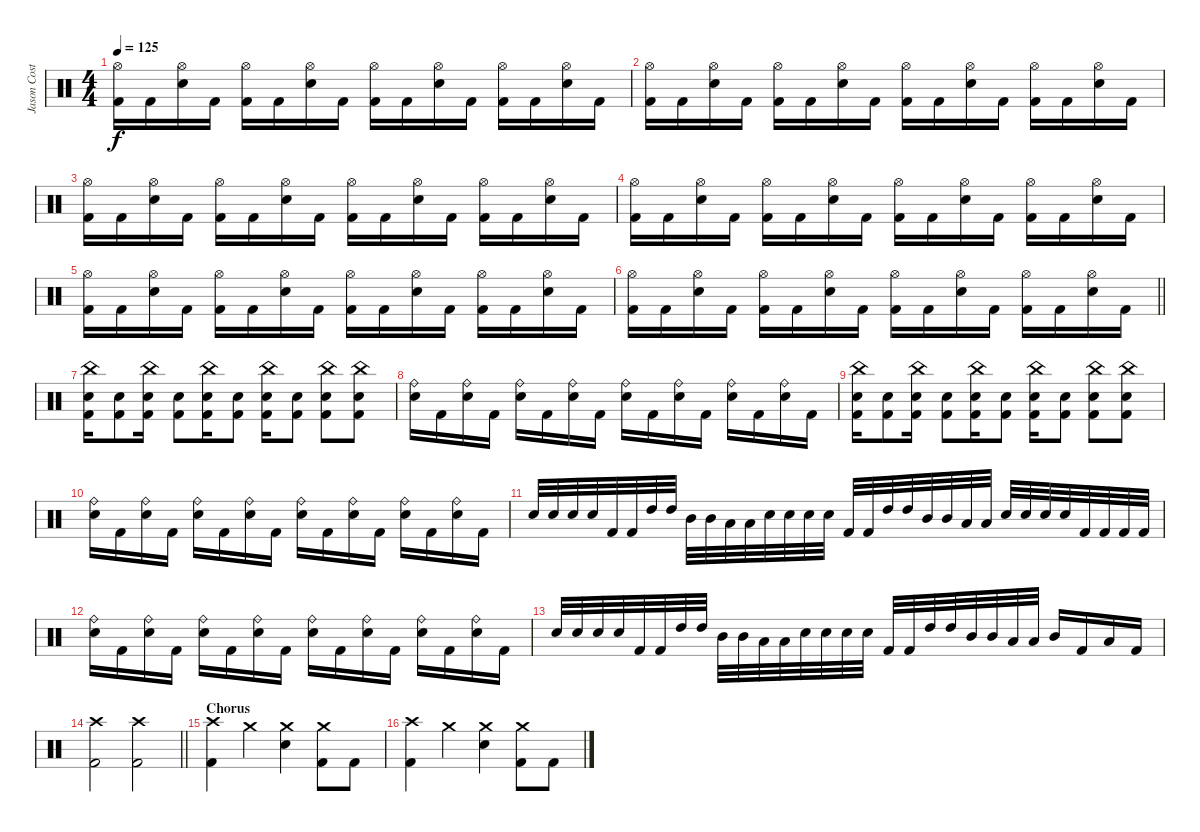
\track ("Jason Costa" "Jason Cost") {instrument percussion}
\staff {score}
\articulation defaults
\ts (4 4)
\tempo 125
\clef neutral
\ks c
("Hi-Hat (open)" "Kick (hit) 2").16{dy f} "Kick (hit) 2".16 ("Hi-Hat (open)" "Electric Snare (hit)").16 "Kick (hit) 2".16 ("Hi-Hat (open)" "Kick (hit) 2").16 "Kick (hit) 2".16 ("Hi-Hat (open)" "Electric Snare (hit)").16 "Kick (hit) 2".16 ("Hi-Hat (open)" "Kick (hit) 2").16 "Kick (hit) 2".16 ("Hi-Hat (open)" "Electric Snare (hit)").16 "Kick (hit) 2".16 ("Hi-Hat (open)" "Kick (hit) 2").16 "Kick (hit) 2".16 ("Hi-Hat (open)" "Electric Snare (hit)").16 "Kick (hit) 2".16 |
("Hi-Hat (open)" "Kick (hit) 2").16 "Kick (hit) 2".16 ("Hi-Hat (open)" "Electric Snare (hit)").16 "Kick (hit) 2".16 ("Hi-Hat (open)" "Kick (hit) 2").16 "Kick (hit) 2".16 ("Hi-Hat (open)" "Electric Snare (hit)").16 "Kick (hit) 2".16 ("Hi-Hat (open)" "Kick (hit) 2").16 "Kick (hit) 2".16 ("Hi-Hat (open)" "Electric Snare (hit)").16 "Kick (hit) 2".16 ("Hi-Hat (open)" "Kick (hit) 2").16 "Kick (hit) 2".16 ("Hi-Hat (open)" "Electric Snare (hit)").16 "Kick (hit) 2".16 |
("Hi-Hat (open)" "Kick (hit) 2").16 "Kick (hit) 2".16 ("Hi-Hat (open)" "Electric Snare (hit)").16 "Kick (hit) 2".16 ("Hi-Hat (open)" "Kick (hit) 2").16 "Kick (hit) 2".16 ("Hi-Hat (open)" "Electric Snare (hit)").16 "Kick (hit) 2".16 ("Hi-Hat (open)" "Kick (hit) 2").16 "Kick (hit) 2".16 ("Hi-Hat (open)" "Electric Snare (hit)").16 "Kick (hit) 2".16 ("Hi-Hat (open)" "Kick (hit) 2").16 "Kick (hit) 2".16 ("Hi-Hat (open)" "Electric Snare (hit)").16 "Kick (hit) 2".16 |
("Hi-Hat (open)" "Kick (hit) 2").16 "Kick (hit) 2".16 ("Hi-Hat (open)" "Electric Snare (hit)").16 "Kick (hit) 2".16 ("Hi-Hat (open)" "Kick (hit) 2").16 "Kick (hit) 2".16 ("Hi-Hat (open)" "Electric Snare (hit)").16 "Kick (hit) 2".16 ("Hi-Hat (open)" "Kick (hit) 2").16 "Kick (hit) 2".16 ("Hi-Hat (open)" "Electric Snare (hit)").16 "Kick (hit) 2".16 ("Hi-Hat (open)" "Kick (hit) 2").16 "Kick (hit) 2".16 ("Hi-Hat (open)" "Electric Snare (hit)").16 "Kick (hit) 2".16 |
("Hi-Hat (open)" "Kick (hit) 2").16 "Kick (hit) 2".16 ("Hi-Hat (open)" "Electric Snare (hit)").16 "Kick (hit) 2".16 ("Hi-Hat (open)" "Kick (hit) 2").16 "Kick (hit) 2".16 ("Hi-Hat (open)" "Electric Snare (hit)").16 "Kick (hit) 2".16 ("Hi-Hat (open)" "Kick (hit) 2").16 "Kick (hit) 2".16 ("Hi-Hat (open)" "Electric Snare (hit)").16 "Kick (hit) 2".16 ("Hi-Hat (open)" "Kick (hit) 2").16 "Kick (hit) 2".16 ("Hi-Hat (open)" "Electric Snare (hit)").16 "Kick (hit) 2".16 |
\barLineRight lightlight
("Hi-Hat (open)" "Kick (hit) 2").16 "Kick (hit) 2".16 ("Hi-Hat (open)" "Electric Snare (hit)").16 "Kick (hit) 2".16 ("Hi-Hat (open)" "Kick (hit) 2").16 "Kick (hit) 2".16 ("Hi-Hat (open)" "Electric Snare (hit)").16 "Kick (hit) 2".16 ("Hi-Hat (open)" "Kick (hit) 2").16 "Kick (hit) 2".16 ("Hi-Hat (open)" "Electric Snare (hit)").16 "Kick (hit) 2".16 ("Hi-Hat (open)" "Kick (hit) 2").16 "Kick (hit) 2".16 ("Hi-Hat (open)" "Electric Snare (hit)").16 "Kick (hit) 2".16 |
\section ("" "")
("China (hit)" "Electric Snare (hit)" "Kick (hit) 2").16 ("Electric Snare (hit)" "Kick (hit) 2").8 ("China (hit)" "Electric Snare (hit)" "Kick (hit) 2").16 ("Electric Snare (hit)" "Kick (hit) 2").8 ("China (hit)" "Electric Snare (hit)" "Kick (hit) 2").16 ("Electric Snare (hit)" "Kick (hit) 2").8 ("China (hit)" "Electric Snare (hit)" "Kick (hit) 2").16 ("Electric Snare (hit)" "Kick (hit) 2").8 ("China (hit)" "Electric Snare (hit)" "Kick (hit) 2").8 ("China (hit)" "Electric Snare (hit)" "Kick (hit) 2").8 |
("Ride (bell)" "Electric Snare (hit)").16 "Kick (hit) 2".16 ("Ride (bell)" "Electric Snare (hit)").16 "Kick (hit) 2".16 ("Ride (bell)" "Electric Snare (hit)").16 "Kick (hit) 2".16 ("Ride (bell)" "Electric Snare (hit)").16 "Kick (hit) 2".16 ("Ride (bell)" "Electric Snare (hit)").16 "Kick (hit) 2".16 ("Ride (bell)" "Electric Snare (hit)").16 "Kick (hit) 2".16 ("Ride (bell)" "Electric Snare (hit)").16 "Kick (hit) 2".16 ("Ride (bell)" "Electric Snare (hit)").16 "Kick (hit) 2".16 |
("China (hit)" "Electric Snare (hit)" "Kick (hit) 2").16 ("Electric Snare (hit)" "Kick (hit) 2").8 ("China (hit)" "Electric Snare (hit)" "Kick (hit) 2").16 ("Electric Snare (hit)" "Kick (hit) 2").8 ("China (hit)" "Electric Snare (hit)" "Kick (hit) 2").16 ("Electric Snare (hit)" "Kick (hit) 2").8 ("China (hit)" "Electric Snare (hit)" "Kick (hit) 2").16 ("Electric Snare (hit)" "Kick (hit) 2").8 ("China (hit)" "Electric Snare (hit)" "Kick (hit) 2").8 ("China (hit)" "Electric Snare (hit)" "Kick (hit) 2").8 |
("Ride (bell)" "Electric Snare (hit)").16 "Kick (hit) 2".16 ("Ride (bell)" "Electric Snare (hit)").16 "Kick (hit) 2".16 ("Ride (bell)" "Electric Snare (hit)").16 "Kick (hit) 2".16 ("Ride (bell)" "Electric Snare (hit)").16 "Kick (hit) 2".16 ("Ride (bell)" "Electric Snare (hit)").16 "Kick (hit) 2".16 ("Ride (bell)" "Electric Snare (hit)").16 "Kick (hit) 2".16 ("Ride (bell)" "Electric Snare (hit)").16 "Kick (hit) 2".16 ("Ride (bell)" "Electric Snare (hit)").16 "Kick (hit) 2".16 |
"Electric Snare (hit)".32 "Electric Snare (hit)".32 "Electric Snare (hit)".32 "Electric Snare (hit)".32 "Kick (hit) 2".32 "Kick (hit) 2".32 "High Tom (hit)".32 "High Tom (hit)".32 "Mid Tom (hit)".32 "Mid Tom (hit)".32 "Low Tom (hit)".32 "Low Tom (hit)".32 "Electric Snare (hit)".32 "Electric Snare (hit)".32 "Electric Snare (hit)".32 "Electric Snare (hit)".32 "Kick (hit) 2".32 "Kick (hit) 2".32 "High Tom (hit)".32 "High Tom (hit)".32 "Mid Tom (hit)".32 "Mid Tom (hit)".32 "Low Tom (hit)".32 "Low Tom (hit)".32 "Electric Snare (hit)".32 "Electric Snare (hit)".32 "Electric Snare (hit)".32 "Electric Snare (hit)".32 "Kick (hit) 2".32 "Kick (hit) 2".32 "Kick (hit) 2".32 "Kick (hit) 2".32 |
("Ride (bell)" "Electric Snare (hit)").16 "Kick (hit) 2".16 ("Ride (bell)" "Electric Snare (hit)").16 "Kick (hit) 2".16 ("Ride (bell)" "Electric Snare (hit)").16 "Kick (hit) 2".16 ("Ride (bell)" "Electric Snare (hit)").16 "Kick (hit) 2".16 ("Ride (bell)" "Electric Snare (hit)").16 "Kick (hit) 2".16 ("Ride (bell)" "Electric Snare (hit)").16 "Kick (hit) 2".16 ("Ride (bell)" "Electric Snare (hit)").16 "Kick (hit) 2".16 ("Ride (bell)" "Electric Snare (hit)").16 "Kick (hit) 2".16 |
"Electric Snare (hit)".32 "Electric Snare (hit)".32 "Electric Snare (hit)".32 "Electric Snare (hit)".32 "Kick (hit) 2".32 "Kick (hit) 2".32 "High Tom (hit)".32 "High Tom (hit)".32 "Mid Tom (hit)".32 "Mid Tom (hit)".32 "Low Tom (hit)".32 "Low Tom (hit)".32 "Electric Snare (hit)".32 "Electric Snare (hit)".32 "Electric Snare (hit)".32 "Electric Snare (hit)".32 "Kick (hit) 2".32 "Kick (hit) 2".32 "High Tom (hit)".32 "High Tom (hit)".32 "Mid Tom (hit)".32 "Mid Tom (hit)".32 "Low Tom (hit)".32 "Low Tom (hit)".32 "Mid Tom (hit)".16 "Kick (hit) 2".16 "Low Tom (hit)".16 "Kick (hit) 2".16 |
\barLineRight lightlight
("Crash high (hit)" "Kick (hit) 2").2 ("Crash high (hit)" "Kick (hit) 2").2 |
\section ("" "Chorus")
("Crash high (hit)" "Kick (hit) 2").4 "Crash medium (hit)".4 ("Crash medium (hit)" "Electric Snare (hit)").4 ("Crash medium (hit)" "Kick (hit) 2").8 "Kick (hit) 2".8 |
("Crash high (hit)" "Kick (hit) 2").4 "Crash medium (hit)".4 ("Crash medium (hit)" "Electric Snare (hit)").4 ("Crash medium (hit)" "Kick (hit) 2").8 "Kick (hit) 2".8
